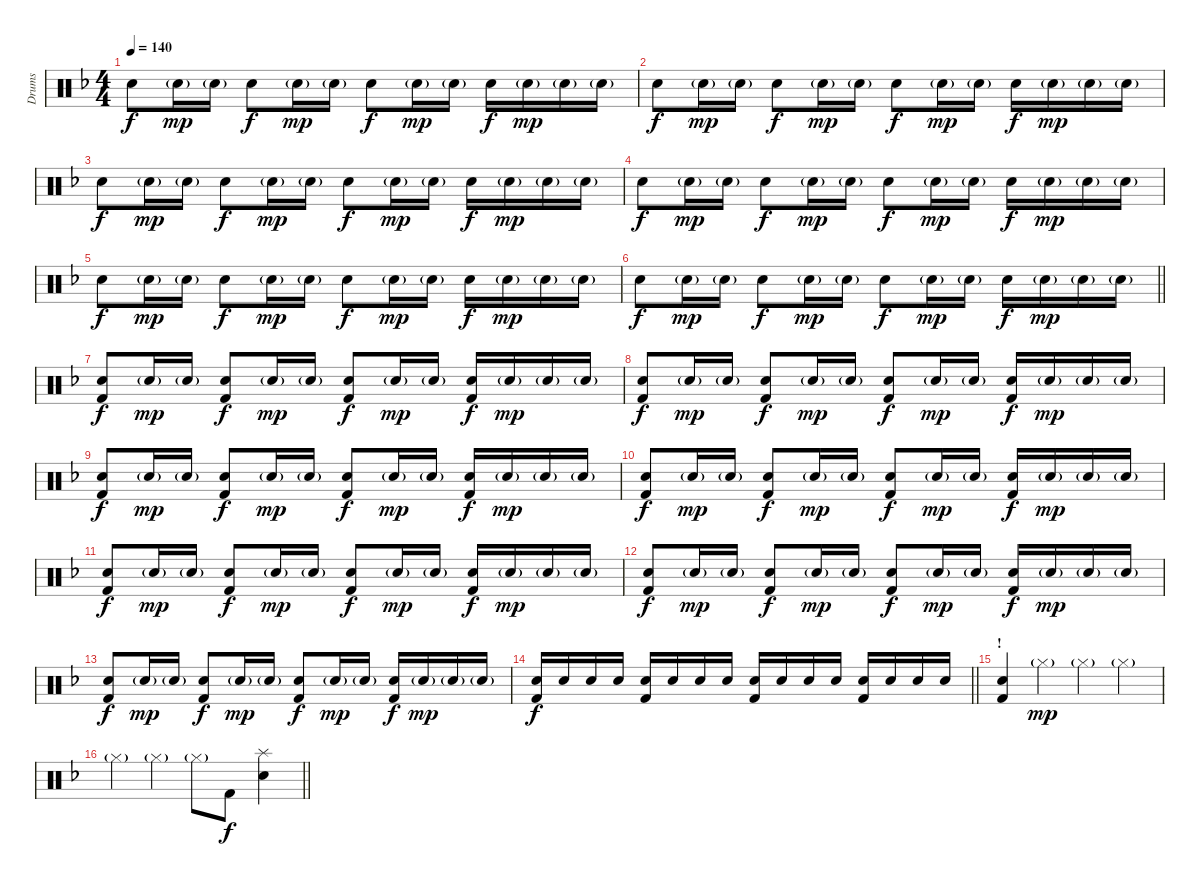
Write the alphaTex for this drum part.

\track ("Drums" "Drums") {instrument percussion}
\staff {score}
\articulation defaults
\ts (4 4)
\tempo 140
\clef neutral
\ks dminor "Snare (hit) 2".8{dy f} "Snare (hit) 2"{g}.16{dy mp} "Snare (hit) 2"{g}.16 "Snare (hit) 2".8{dy f} "Snare (hit) 2"{g}.16{dy mp} "Snare (hit) 2"{g}.16 "Snare (hit) 2".8{dy f} "Snare (hit) 2"{g}.16{dy mp} "Snare (hit) 2"{g}.16 "Snare (hit) 2".16{dy f} "Snare (hit) 2"{g}.16{dy mp} "Snare (hit) 2"{g}.16 "Snare (hit) 2"{g}.16
|
"Snare (hit) 2".8{dy f} "Snare (hit) 2"{g}.16{dy mp} "Snare (hit) 2"{g}.16 "Snare (hit) 2".8{dy f} "Snare (hit) 2"{g}.16{dy mp} "Snare (hit) 2"{g}.16 "Snare (hit) 2".8{dy f} "Snare (hit) 2"{g}.16{dy mp} "Snare (hit) 2"{g}.16 "Snare (hit) 2".16{dy f} "Snare (hit) 2"{g}.16{dy mp} "Snare (hit) 2"{g}.16 "Snare (hit) 2"{g}.16 |
"Snare (hit) 2".8{dy f} "Snare (hit) 2"{g}.16{dy mp} "Snare (hit) 2"{g}.16 "Snare (hit) 2".8{dy f} "Snare (hit) 2"{g}.16{dy mp} "Snare (hit) 2"{g}.16 "Snare (hit) 2".8{dy f} "Snare (hit) 2"{g}.16{dy mp} "Snare (hit) 2"{g}.16 "Snare (hit) 2".16{dy f} "Snare (hit) 2"{g}.16{dy mp} "Snare (hit) 2"{g}.16 "Snare (hit) 2"{g}.16 |
"Snare (hit) 2".8{dy f} "Snare (hit) 2"{g}.16{dy mp} "Snare (hit) 2"{g}.16 "Snare (hit) 2".8{dy f} "Snare (hit) 2"{g}.16{dy mp} "Snare (hit) 2"{g}.16 "Snare (hit) 2".8{dy f} "Snare (hit) 2"{g}.16{dy mp} "Snare (hit) 2"{g}.16 "Snare (hit) 2".16{dy f} "Snare (hit) 2"{g}.16{dy mp} "Snare (hit) 2"{g}.16 "Snare (hit) 2"{g}.16 |
"Snare (hit) 2".8{dy f} "Snare (hit) 2"{g}.16{dy mp} "Snare (hit) 2"{g}.16 "Snare (hit) 2".8{dy f} "Snare (hit) 2"{g}.16{dy mp} "Snare (hit) 2"{g}.16 "Snare (hit) 2".8{dy f} "Snare (hit) 2"{g}.16{dy mp} "Snare (hit) 2"{g}.16 "Snare (hit) 2".16{dy f} "Snare (hit) 2"{g}.16{dy mp} "Snare (hit) 2"{g}.16 "Snare (hit) 2"{g}.16 |
\barLineRight lightlight "Snare (hit) 2".8{dy f} "Snare (hit) 2"{g}.16{dy mp} "Snare (hit) 2"{g}.16 "Snare (hit) 2".8{dy f} "Snare (hit) 2"{g}.16{dy mp} "Snare (hit) 2"{g}.16 "Snare (hit) 2".8{dy f} "Snare (hit) 2"{g}.16{dy mp} "Snare (hit) 2"{g}.16 "Snare (hit) 2".16{dy f} "Snare (hit) 2"{g}.16{dy mp} "Snare (hit) 2"{g}.16 "Snare (hit) 2"{g}.16
|
("Snare (hit) 2" "Kick (hit) 2").8{dy f} "Snare (hit) 2"{g}.16{dy mp} "Snare (hit) 2"{g}.16 ("Snare (hit) 2" "Kick (hit) 2").8{dy f} "Snare (hit) 2"{g}.16{dy mp} "Snare (hit) 2"{g}.16 ("Snare (hit) 2" "Kick (hit) 2").8{dy f} "Snare (hit) 2"{g}.16{dy mp} "Snare (hit) 2"{g}.16 ("Snare (hit) 2" "Kick (hit) 2").16{dy f} "Snare (hit) 2"{g}.16{dy mp} "Snare (hit) 2"{g}.16 "Snare (hit) 2"{g}.16 |
("Snare (hit) 2" "Kick (hit) 2").8{dy f} "Snare (hit) 2"{g}.16{dy mp} "Snare (hit) 2"{g}.16 ("Snare (hit) 2" "Kick (hit) 2").8{dy f} "Snare (hit) 2"{g}.16{dy mp} "Snare (hit) 2"{g}.16 ("Snare (hit) 2" "Kick (hit) 2").8{dy f} "Snare (hit) 2"{g}.16{dy mp} "Snare (hit) 2"{g}.16 ("Snare (hit) 2" "Kick (hit) 2").16{dy f} "Snare (hit) 2"{g}.16{dy mp} "Snare (hit) 2"{g}.16 "Snare (hit) 2"{g}.16 |
("Snare (hit) 2" "Kick (hit) 2").8{dy f} "Snare (hit) 2"{g}.16{dy mp} "Snare (hit) 2"{g}.16 ("Snare (hit) 2" "Kick (hit) 2").8{dy f} "Snare (hit) 2"{g}.16{dy mp} "Snare (hit) 2"{g}.16 ("Snare (hit) 2" "Kick (hit) 2").8{dy f} "Snare (hit) 2"{g}.16{dy mp} "Snare (hit) 2"{g}.16 ("Snare (hit) 2" "Kick (hit) 2").16{dy f} "Snare (hit) 2"{g}.16{dy mp} "Snare (hit) 2"{g}.16 "Snare (hit) 2"{g}.16 |
("Snare (hit) 2" "Kick (hit) 2").8{dy f} "Snare (hit) 2"{g}.16{dy mp} "Snare (hit) 2"{g}.16 ("Snare (hit) 2" "Kick (hit) 2").8{dy f} "Snare (hit) 2"{g}.16{dy mp} "Snare (hit) 2"{g}.16 ("Snare (hit) 2" "Kick (hit) 2").8{dy f} "Snare (hit) 2"{g}.16{dy mp} "Snare (hit) 2"{g}.16 ("Snare (hit) 2" "Kick (hit) 2").16{dy f} "Snare (hit) 2"{g}.16{dy mp} "Snare (hit) 2"{g}.16 "Snare (hit) 2"{g}.16 |
("Snare (hit) 2" "Kick (hit) 2").8{dy f} "Snare (hit) 2"{g}.16{dy mp} "Snare (hit) 2"{g}.16 ("Snare (hit) 2" "Kick (hit) 2").8{dy f} "Snare (hit) 2"{g}.16{dy mp} "Snare (hit) 2"{g}.16 ("Snare (hit) 2" "Kick (hit) 2").8{dy f} "Snare (hit) 2"{g}.16{dy mp} "Snare (hit) 2"{g}.16 ("Snare (hit) 2" "Kick (hit) 2").16{dy f} "Snare (hit) 2"{g}.16{dy mp} "Snare (hit) 2"{g}.16 "Snare (hit) 2"{g}.16 |
("Snare (hit) 2" "Kick (hit) 2").8{dy f} "Snare (hit) 2"{g}.16{dy mp} "Snare (hit) 2"{g}.16 ("Snare (hit) 2" "Kick (hit) 2").8{dy f} "Snare (hit) 2"{g}.16{dy mp} "Snare (hit) 2"{g}.16 ("Snare (hit) 2" "Kick (hit) 2").8{dy f} "Snare (hit) 2"{g}.16{dy mp} "Snare (hit) 2"{g}.16 ("Snare (hit) 2" "Kick (hit) 2").16{dy f} "Snare (hit) 2"{g}.16{dy mp} "Snare (hit) 2"{g}.16 "Snare (hit) 2"{g}.16 |
("Snare (hit) 2" "Kick (hit) 2").8{dy f} "Snare (hit) 2"{g}.16{dy mp} "Snare (hit) 2"{g}.16 ("Snare (hit) 2" "Kick (hit) 2").8{dy f} "Snare (hit) 2"{g}.16{dy mp} "Snare (hit) 2"{g}.16 ("Snare (hit) 2" "Kick (hit) 2").8{dy f} "Snare (hit) 2"{g}.16{dy mp} "Snare (hit) 2"{g}.16 ("Snare (hit) 2" "Kick (hit) 2").16{dy f} "Snare (hit) 2"{g}.16{dy mp} "Snare (hit) 2"{g}.16 "Snare (hit) 2"{g}.16 |
\barLineRight lightlight
("Snare (hit) 2" "Kick (hit) 2").16{dy f} "Snare (hit) 2".16 "Snare (hit) 2".16 "Snare (hit) 2".16 ("Snare (hit) 2" "Kick (hit) 2").16 "Snare (hit) 2".16 "Snare (hit) 2".16 "Snare (hit) 2".16 ("Snare (hit) 2" "Kick (hit) 2").16 "Snare (hit) 2".16 "Snare (hit) 2".16 "Snare (hit) 2".16 ("Snare (hit) 2" "Kick (hit) 2").16 "Snare (hit) 2".16 "Snare (hit) 2".16 "Snare (hit) 2".16 |
\section ("" "!")
("Snare (hit) 2" "Kick (hit) 2").4 "Hi-Hat (closed)"{g}.4{dy mp} "Hi-Hat (closed)"{g}.4 "Hi-Hat (closed)"{g}.4 |
\barLineRight lightlight "Hi-Hat (closed)"{g}.4 "Hi-Hat (closed)"{g}.4 "Hi-Hat (closed)"{g}.8 "Kick (hit) 2".8{dy f}
("Splash (hit)" "Snare (hit) 2").4
